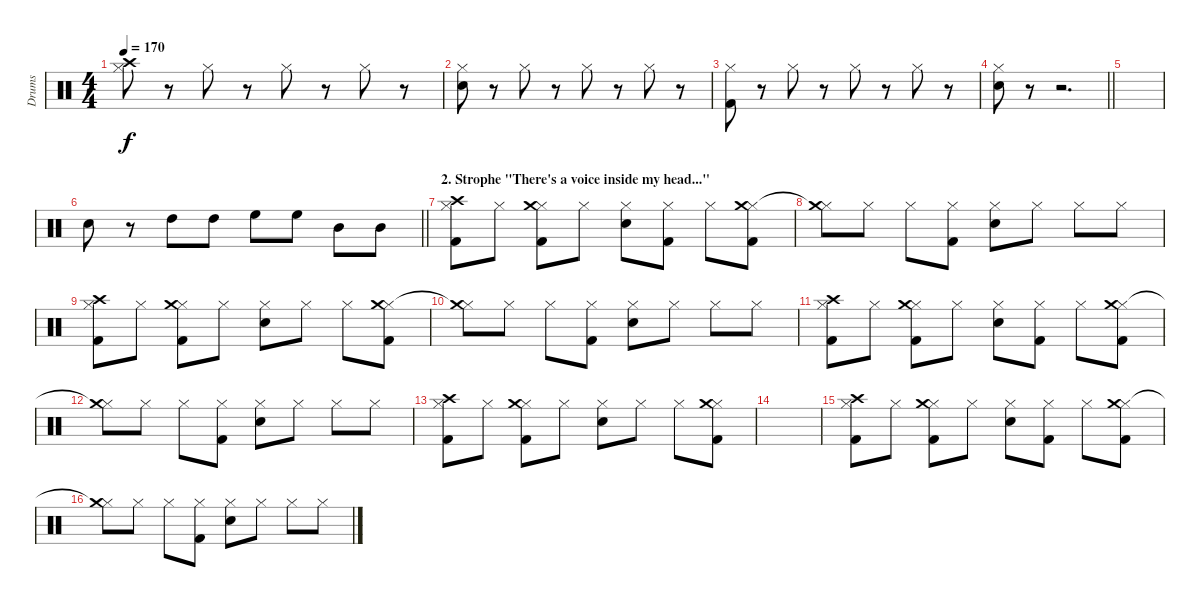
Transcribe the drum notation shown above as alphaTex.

\track ("Drums" "Drums") {instrument percussion}
\staff {score}
\articulation defaults
\ts (4 4)
\tempo 170
\clef neutral
\ks c
("Crash high (hit)" "Hi-Hat (closed)").8{dy f} r.8 "Hi-Hat (closed)".8 r.8 "Hi-Hat (closed)".8 r.8 "Hi-Hat (closed)".8 r.8 |
("Electric Snare (hit)" "Hi-Hat (closed)").8 r.8 "Hi-Hat (closed)".8 r.8 "Hi-Hat (closed)".8 r.8 "Hi-Hat (closed)".8 r.8 |
("Kick (hit) 2" "Hi-Hat (closed)").8 r.8 "Hi-Hat (closed)".8 r.8 "Hi-Hat (closed)".8 r.8 "Hi-Hat (closed)".8 r.8 |
\barLineRight lightlight
("Electric Snare (hit)" "Hi-Hat (closed)").8 r.8 r.2{d} |
|
\barLineRight lightlight "Electric Snare (hit)".8
r.8 "High Tom (hit)".8 "High Tom (hit)".8 "High Floor Tom (hit)".8 "High Floor Tom (hit)".8 "Mid Tom (hit)".8 "Mid Tom (hit)".8 |
\section ("" "2. Strophe \"There's a voice inside my head...\"")
("Hi-Hat (closed)" "Crash high (hit)" "Kick (hit) 2").8 "Hi-Hat (closed)".8 ("Hi-Hat (closed)" "Crash medium (hit)" "Kick (hit) 2").8 "Hi-Hat (closed)".8 ("Hi-Hat (closed)" "Electric Snare (hit)").8 ("Hi-Hat (closed)" "Kick (hit) 2").8 "Hi-Hat (closed)".8 ("Hi-Hat (closed)" "Crash medium (hit)" "Kick (hit) 2").8 |
("Hi-Hat (closed)" "Crash medium (hit)"{t}).8 "Hi-Hat (closed)".8 "Hi-Hat (closed)".8 ("Hi-Hat (closed)" "Kick (hit) 2").8 ("Hi-Hat (closed)" "Electric Snare (hit)").8 "Hi-Hat (closed)".8 "Hi-Hat (closed)".8 "Hi-Hat (closed)".8 |
("Hi-Hat (closed)" "Crash high (hit)" "Kick (hit) 2").8 "Hi-Hat (closed)".8 ("Hi-Hat (closed)" "Crash medium (hit)" "Kick (hit) 2").8 "Hi-Hat (closed)".8 ("Hi-Hat (closed)" "Electric Snare (hit)").8 "Hi-Hat (closed)".8 "Hi-Hat (closed)".8 ("Hi-Hat (closed)" "Crash medium (hit)" "Kick (hit) 2").8 |
("Hi-Hat (closed)" "Crash medium (hit)"{t}).8 "Hi-Hat (closed)".8 "Hi-Hat (closed)".8 ("Hi-Hat (closed)" "Kick (hit) 2").8 ("Hi-Hat (closed)" "Electric Snare (hit)").8 "Hi-Hat (closed)".8 "Hi-Hat (closed)".8 "Hi-Hat (closed)".8 |
("Hi-Hat (closed)" "Crash high (hit)" "Kick (hit) 2").8 "Hi-Hat (closed)".8 ("Hi-Hat (closed)" "Crash medium (hit)" "Kick (hit) 2").8 "Hi-Hat (closed)".8 ("Hi-Hat (closed)" "Electric Snare (hit)").8 ("Hi-Hat (closed)" "Kick (hit) 2").8 "Hi-Hat (closed)".8 ("Hi-Hat (closed)" "Crash medium (hit)" "Kick (hit) 2").8 |
("Hi-Hat (closed)" "Crash medium (hit)"{t}).8 "Hi-Hat (closed)".8 "Hi-Hat (closed)".8 ("Hi-Hat (closed)" "Kick (hit) 2").8 ("Hi-Hat (closed)" "Electric Snare (hit)").8 "Hi-Hat (closed)".8 "Hi-Hat (closed)".8 "Hi-Hat (closed)".8 |
("Hi-Hat (closed)" "Crash high (hit)" "Kick (hit) 2").8 "Hi-Hat (closed)".8 ("Hi-Hat (closed)" "Crash medium (hit)" "Kick (hit) 2").8 "Hi-Hat (closed)".8 ("Hi-Hat (closed)" "Electric Snare (hit)").8 "Hi-Hat (closed)".8 "Hi-Hat (closed)".8 ("Hi-Hat (closed)" "Crash medium (hit)" "Kick (hit) 2").8 |
|
("Hi-Hat (closed)" "Crash high (hit)" "Kick (hit) 2").8 "Hi-Hat (closed)".8 ("Hi-Hat (closed)" "Crash medium (hit)" "Kick (hit) 2").8 "Hi-Hat (closed)".8 ("Hi-Hat (closed)" "Electric Snare (hit)").8 ("Hi-Hat (closed)" "Kick (hit) 2").8 "Hi-Hat (closed)".8 ("Hi-Hat (closed)" "Crash medium (hit)" "Kick (hit) 2").8 |
("Hi-Hat (closed)" "Crash medium (hit)"{t}).8 "Hi-Hat (closed)".8 "Hi-Hat (closed)".8 ("Hi-Hat (closed)" "Kick (hit) 2").8 ("Hi-Hat (closed)" "Electric Snare (hit)").8 "Hi-Hat (closed)".8 "Hi-Hat (closed)".8 "Hi-Hat (closed)".8
